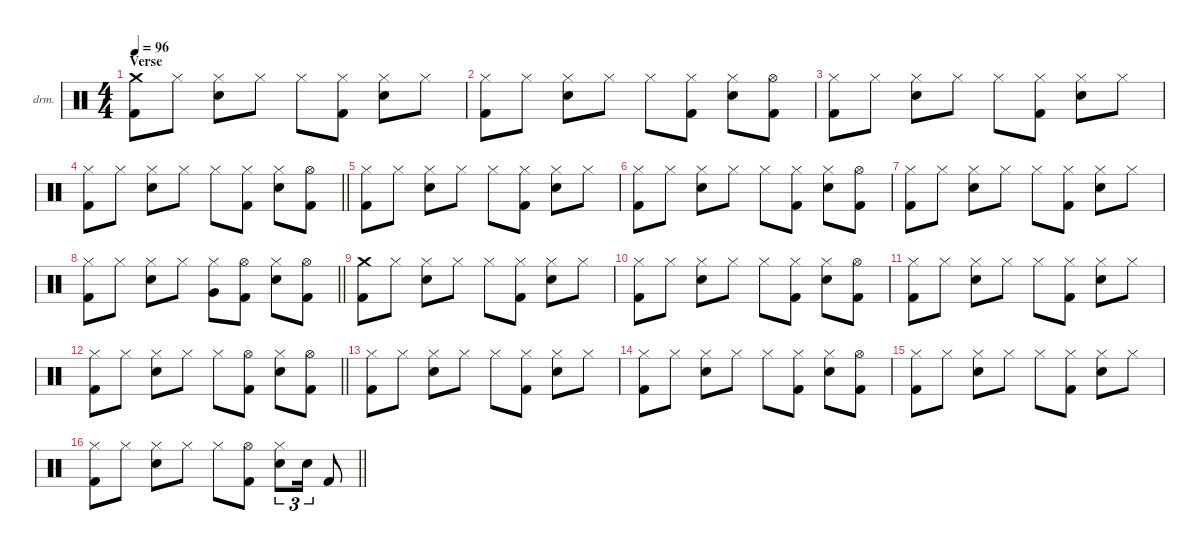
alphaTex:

\defaultSystemsLayout 4
\hideDynamics
\bracketExtendMode nobrackets
\firstSystemTrackNameOrientation horizontal
\otherSystemsTrackNameOrientation horizontal
\track ("Percussion" "drm.") {instrument percussion}
\staff {score}
\articulation defaults
\ts (4 4)
\section ("" "Verse")
\tempo 96
\clef neutral
\ks c
("Crash medium (hit)" "Kick (hit) 2").8{dy f beam Down} "Hi-Hat (closed)".8{beam Down} ("Hi-Hat (closed)" "Snare (hit) 2").8{beam Down} "Hi-Hat (closed)".8{beam Down} "Hi-Hat (closed)".8{beam Down} ("Hi-Hat (closed)" "Kick (hit) 2").8{beam Down} ("Hi-Hat (closed)" "Snare (hit) 2").8{beam Down} "Hi-Hat (closed)".8{beam Down} |
("Hi-Hat (closed)" "Kick (hit) 2").8{beam Down} "Hi-Hat (closed)".8{beam Down} ("Hi-Hat (closed)" "Snare (hit) 2").8{beam Down} "Hi-Hat (closed)".8{beam Down} "Hi-Hat (closed)".8{beam Down} ("Hi-Hat (closed)" "Kick (hit) 2").8{beam Down} ("Hi-Hat (closed)" "Snare (hit) 2").8{beam Down} ("Hi-Hat (open)" "Kick (hit) 2").8{dy mf beam Down} |
("Hi-Hat (closed)" "Kick (hit) 2").8{dy f beam Down} "Hi-Hat (closed)".8{beam Down} ("Hi-Hat (closed)" "Snare (hit) 2").8{beam Down} "Hi-Hat (closed)".8{beam Down} "Hi-Hat (closed)".8{beam Down} ("Hi-Hat (closed)" "Kick (hit) 2").8{beam Down} ("Hi-Hat (closed)" "Snare (hit) 2").8{beam Down} "Hi-Hat (closed)".8{beam Down} |
\barLineRight lightlight
("Hi-Hat (closed)" "Kick (hit) 2").8{beam Down} "Hi-Hat (closed)".8{beam Down} ("Hi-Hat (closed)" "Snare (hit) 2").8{beam Down} "Hi-Hat (closed)".8{beam Down} "Hi-Hat (closed)".8{beam Down} ("Hi-Hat (closed)" "Kick (hit) 2").8{beam Down} ("Hi-Hat (closed)" "Snare (hit) 2").8{beam Down} ("Hi-Hat (open)" "Kick (hit) 2").8{dy mf beam Down} |
("Hi-Hat (closed)" "Kick (hit) 2").8{dy f beam Down} "Hi-Hat (closed)".8{beam Down} ("Hi-Hat (closed)" "Snare (hit) 2").8{beam Down} "Hi-Hat (closed)".8{beam Down} "Hi-Hat (closed)".8{beam Down} ("Hi-Hat (closed)" "Kick (hit) 2").8{beam Down} ("Hi-Hat (closed)" "Snare (hit) 2").8{beam Down} "Hi-Hat (closed)".8{beam Down} |
("Hi-Hat (closed)" "Kick (hit) 2").8{beam Down} "Hi-Hat (closed)".8{beam Down} ("Hi-Hat (closed)" "Snare (hit) 2").8{beam Down} "Hi-Hat (closed)".8{beam Down} "Hi-Hat (closed)".8{beam Down} ("Hi-Hat (closed)" "Kick (hit) 2").8{beam Down} ("Hi-Hat (closed)" "Snare (hit) 2").8{beam Down} ("Hi-Hat (open)" "Kick (hit) 2").8{dy mf beam Down} |
("Hi-Hat (closed)" "Kick (hit) 2").8{dy f beam Down} "Hi-Hat (closed)".8{beam Down} ("Hi-Hat (closed)" "Snare (hit) 2").8{beam Down} "Hi-Hat (closed)".8{beam Down} "Hi-Hat (closed)".8{beam Down} ("Hi-Hat (closed)" "Kick (hit) 2").8{beam Down} ("Hi-Hat (closed)" "Snare (hit) 2").8{beam Down} "Hi-Hat (closed)".8{beam Down} |
\barLineRight lightlight
("Hi-Hat (closed)" "Kick (hit) 2").8{beam Down} "Hi-Hat (closed)".8{beam Down} ("Hi-Hat (closed)" "Snare (hit) 2").8{beam Down} "Hi-Hat (closed)".8{beam Down} ("Hi-Hat (closed)" "Very Low Tom (hit)").8{beam Down} ("Hi-Hat (open)" "Kick (hit) 2").8{beam Down} ("Hi-Hat (closed)" "Snare (hit) 2").8{beam Down} ("Hi-Hat (open)" "Kick (hit) 2").8{beam Down} |
("Crash medium (hit)" "Kick (hit) 2").8{beam Down} "Hi-Hat (closed)".8{beam Down} ("Hi-Hat (closed)" "Snare (hit) 2").8{beam Down} "Hi-Hat (closed)".8{beam Down} "Hi-Hat (closed)".8{beam Down} ("Hi-Hat (closed)" "Kick (hit) 2").8{beam Down} ("Hi-Hat (closed)" "Snare (hit) 2").8{beam Down} "Hi-Hat (closed)".8{beam Down} |
("Hi-Hat (closed)" "Kick (hit) 2").8{beam Down} "Hi-Hat (closed)".8{beam Down} ("Hi-Hat (closed)" "Snare (hit) 2").8{beam Down} "Hi-Hat (closed)".8{beam Down} "Hi-Hat (closed)".8{beam Down} ("Hi-Hat (closed)" "Kick (hit) 2").8{beam Down} ("Hi-Hat (closed)" "Snare (hit) 2").8{beam Down} ("Hi-Hat (open)" "Kick (hit) 2").8{dy mf beam Down} |
("Hi-Hat (closed)" "Kick (hit) 2").8{dy f beam Down} "Hi-Hat (closed)".8{beam Down} ("Hi-Hat (closed)" "Snare (hit) 2").8{beam Down} "Hi-Hat (closed)".8{beam Down} "Hi-Hat (closed)".8{beam Down} ("Hi-Hat (closed)" "Kick (hit) 2").8{beam Down} ("Hi-Hat (closed)" "Snare (hit) 2").8{beam Down} "Hi-Hat (closed)".8{beam Down} |
\barLineRight lightlight
("Hi-Hat (closed)" "Kick (hit) 2").8{beam Down} "Hi-Hat (closed)".8{beam Down} ("Hi-Hat (closed)" "Snare (hit) 2").8{beam Down} "Hi-Hat (closed)".8{beam Down} "Hi-Hat (closed)".8{beam Down} ("Hi-Hat (open)" "Kick (hit) 2").8{dy mf beam Down} ("Hi-Hat (closed)" "Snare (hit) 2").8{dy f beam Down} ("Hi-Hat (open)" "Kick (hit) 2").8{dy mf beam Down} |
("Hi-Hat (closed)" "Kick (hit) 2").8{dy f beam Down} "Hi-Hat (closed)".8{beam Down} ("Hi-Hat (closed)" "Snare (hit) 2").8{beam Down} "Hi-Hat (closed)".8{beam Down} "Hi-Hat (closed)".8{beam Down} ("Hi-Hat (closed)" "Kick (hit) 2").8{beam Down} ("Hi-Hat (closed)" "Snare (hit) 2").8{beam Down} "Hi-Hat (closed)".8{beam Down} |
("Hi-Hat (closed)" "Kick (hit) 2").8{beam Down} "Hi-Hat (closed)".8{beam Down} ("Hi-Hat (closed)" "Snare (hit) 2").8{beam Down} "Hi-Hat (closed)".8{beam Down} "Hi-Hat (closed)".8{beam Down} ("Hi-Hat (closed)" "Kick (hit) 2").8{beam Down} ("Hi-Hat (closed)" "Snare (hit) 2").8{beam Down} ("Hi-Hat (open)" "Kick (hit) 2").8{dy mf beam Down} |
("Hi-Hat (closed)" "Kick (hit) 2").8{dy f beam Down} "Hi-Hat (closed)".8{beam Down} ("Hi-Hat (closed)" "Snare (hit) 2").8{beam Down} "Hi-Hat (closed)".8{beam Down} "Hi-Hat (closed)".8{beam Down} ("Hi-Hat (closed)" "Kick (hit) 2").8{beam Down} ("Hi-Hat (closed)" "Snare (hit) 2").8{beam Down} "Hi-Hat (closed)".8{beam Down} |
\barLineRight lightlight
("Hi-Hat (closed)" "Kick (hit) 2").8{beam Down} "Hi-Hat (closed)".8{beam Down} ("Hi-Hat (closed)" "Snare (hit) 2").8{beam Down} "Hi-Hat (closed)".8{beam Down} "Hi-Hat (closed)".8{beam Down} ("Hi-Hat (open)" "Kick (hit) 2").8{beam Down} ("Hi-Hat (closed)" "Snare (hit) 2").8{tu (3 2) beam Down} "Snare (hit) 2".16{tu (3 2) beam Down} "Kick (hit) 2".8{beam Up}
